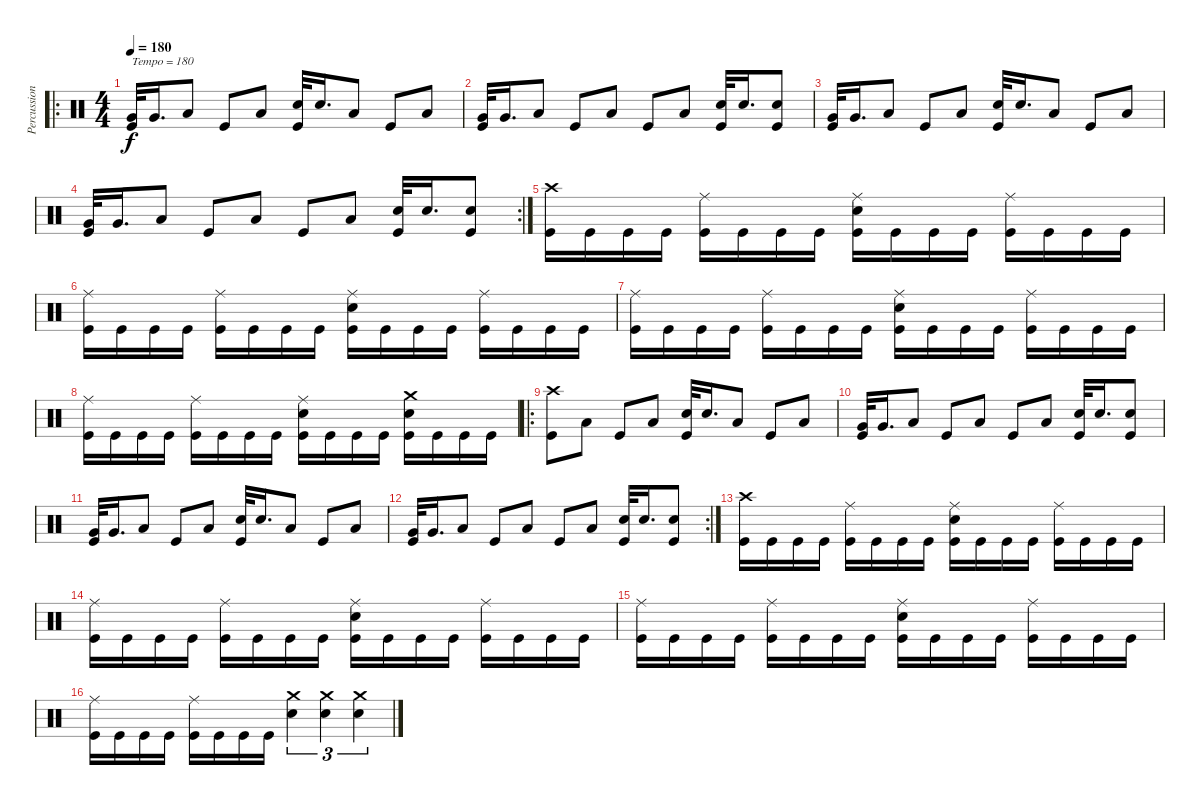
\track ("Percussion" "Percussion") {instrument percussion}
\staff {score}
\articulation defaults
\ro
\ts (4 4)
\tempo 180
\clef neutral
\ks c
("Very Low Tom (hit)" "Kick (hit)").32{txt "Tempo = 180" dy f} "Very Low Tom (hit)".16{d} "Low Tom (hit)".8 "Kick (hit)".8 "Low Tom (hit)".8 ("Electric Snare (hit)" "Kick (hit)").32 "Electric Snare (hit)".16{d} "Low Tom (hit)".8 "Kick (hit)".8 "Low Tom (hit)".8 |
("Very Low Tom (hit)" "Kick (hit)").32 "Very Low Tom (hit)".16{d} "Low Tom (hit)".8 "Kick (hit)".8 "Low Tom (hit)".8 "Kick (hit)".8 "Low Tom (hit)".8 ("Electric Snare (hit)" "Kick (hit)").32 "Electric Snare (hit)".16{d} ("Electric Snare (hit)" "Kick (hit)").8 |
("Very Low Tom (hit)" "Kick (hit)").32 "Very Low Tom (hit)".16{d} "Low Tom (hit)".8 "Kick (hit)".8 "Low Tom (hit)".8 ("Electric Snare (hit)" "Kick (hit)").32 "Electric Snare (hit)".16{d} "Low Tom (hit)".8 "Kick (hit)".8 "Low Tom (hit)".8 |
\rc 2
("Very Low Tom (hit)" "Kick (hit)").32 "Very Low Tom (hit)".16{d} "Low Tom (hit)".8 "Kick (hit)".8 "Low Tom (hit)".8 "Kick (hit)".8 "Low Tom (hit)".8 ("Electric Snare (hit)" "Kick (hit)").32 "Electric Snare (hit)".16{d} ("Electric Snare (hit)" "Kick (hit)").8 |
("Crash high (hit)" "Kick (hit)").16 "Kick (hit)".16 "Kick (hit)".16 "Kick (hit)".16 ("Ride (middle)" "Kick (hit)").16 "Kick (hit)".16 "Kick (hit)".16 "Kick (hit)".16 ("Ride (middle)" "Electric Snare (hit)" "Kick (hit)").16 "Kick (hit)".16 "Kick (hit)".16 "Kick (hit)".16 ("Ride (middle)" "Kick (hit)").16 "Kick (hit)".16 "Kick (hit)".16 "Kick (hit)".16 |
("Ride (middle)" "Kick (hit)").16 "Kick (hit)".16 "Kick (hit)".16 "Kick (hit)".16 ("Ride (middle)" "Kick (hit)").16 "Kick (hit)".16 "Kick (hit)".16 "Kick (hit)".16 ("Ride (middle)" "Electric Snare (hit)" "Kick (hit)").16 "Kick (hit)".16 "Kick (hit)".16 "Kick (hit)".16 ("Ride (middle)" "Kick (hit)").16 "Kick (hit)".16 "Kick (hit)".16 "Kick (hit)".16 |
("Ride (middle)" "Kick (hit)").16 "Kick (hit)".16 "Kick (hit)".16 "Kick (hit)".16 ("Ride (middle)" "Kick (hit)").16 "Kick (hit)".16 "Kick (hit)".16 "Kick (hit)".16 ("Ride (middle)" "Electric Snare (hit)" "Kick (hit)").16 "Kick (hit)".16 "Kick (hit)".16 "Kick (hit)".16 ("Ride (middle)" "Kick (hit)").16 "Kick (hit)".16 "Kick (hit)".16 "Kick (hit)".16 |
("Ride (middle)" "Kick (hit)").16 "Kick (hit)".16 "Kick (hit)".16 "Kick (hit)".16 ("Ride (middle)" "Kick (hit)").16 "Kick (hit)".16 "Kick (hit)".16 "Kick (hit)".16 ("Ride (middle)" "Electric Snare (hit)" "Kick (hit)").16 "Kick (hit)".16 "Kick (hit)".16 "Kick (hit)".16 ("Crash medium (hit)" "Electric Snare (hit)" "Kick (hit)").16 "Kick (hit)".16 "Kick (hit)".16 "Kick (hit)".16 |
\ro
("Crash high (hit)" "Kick (hit)").8 "Low Tom (hit)".8 "Kick (hit)".8 "Low Tom (hit)".8 ("Electric Snare (hit)" "Kick (hit)").32 "Electric Snare (hit)".16{d} "Low Tom (hit)".8 "Kick (hit)".8 "Low Tom (hit)".8 |
("Very Low Tom (hit)" "Kick (hit)").32 "Very Low Tom (hit)".16{d} "Low Tom (hit)".8 "Kick (hit)".8 "Low Tom (hit)".8 "Kick (hit)".8 "Low Tom (hit)".8 ("Electric Snare (hit)" "Kick (hit)").32 "Electric Snare (hit)".16{d} ("Electric Snare (hit)" "Kick (hit)").8 |
("Very Low Tom (hit)" "Kick (hit)").32 "Very Low Tom (hit)".16{d} "Low Tom (hit)".8 "Kick (hit)".8 "Low Tom (hit)".8 ("Electric Snare (hit)" "Kick (hit)").32 "Electric Snare (hit)".16{d} "Low Tom (hit)".8 "Kick (hit)".8 "Low Tom (hit)".8 |
\rc 2
("Very Low Tom (hit)" "Kick (hit)").32 "Very Low Tom (hit)".16{d} "Low Tom (hit)".8 "Kick (hit)".8 "Low Tom (hit)".8 "Kick (hit)".8 "Low Tom (hit)".8 ("Electric Snare (hit)" "Kick (hit)").32 "Electric Snare (hit)".16{d} ("Electric Snare (hit)" "Kick (hit)").8 |
("Crash high (hit)" "Kick (hit)").16 "Kick (hit)".16 "Kick (hit)".16 "Kick (hit)".16 ("Ride (middle)" "Kick (hit)").16 "Kick (hit)".16 "Kick (hit)".16 "Kick (hit)".16 ("Ride (middle)" "Electric Snare (hit)" "Kick (hit)").16 "Kick (hit)".16 "Kick (hit)".16 "Kick (hit)".16 ("Ride (middle)" "Kick (hit)").16 "Kick (hit)".16 "Kick (hit)".16 "Kick (hit)".16 |
("Ride (middle)" "Kick (hit)").16 "Kick (hit)".16 "Kick (hit)".16 "Kick (hit)".16 ("Ride (middle)" "Kick (hit)").16 "Kick (hit)".16 "Kick (hit)".16 "Kick (hit)".16 ("Ride (middle)" "Electric Snare (hit)" "Kick (hit)").16 "Kick (hit)".16 "Kick (hit)".16 "Kick (hit)".16 ("Ride (middle)" "Kick (hit)").16 "Kick (hit)".16 "Kick (hit)".16 "Kick (hit)".16 |
("Ride (middle)" "Kick (hit)").16 "Kick (hit)".16 "Kick (hit)".16 "Kick (hit)".16 ("Ride (middle)" "Kick (hit)").16 "Kick (hit)".16 "Kick (hit)".16 "Kick (hit)".16 ("Ride (middle)" "Electric Snare (hit)" "Kick (hit)").16 "Kick (hit)".16 "Kick (hit)".16 "Kick (hit)".16 ("Ride (middle)" "Kick (hit)").16 "Kick (hit)".16 "Kick (hit)".16 "Kick (hit)".16 |
("Ride (middle)" "Kick (hit)").16 "Kick (hit)".16 "Kick (hit)".16 "Kick (hit)".16 ("Ride (middle)" "Kick (hit)").16 "Kick (hit)".16 "Kick (hit)".16 "Kick (hit)".16 ("Crash medium (hit)" "Electric Snare (hit)").4{tu (3 2)} ("Crash medium (hit)" "Electric Snare (hit)").4{tu (3 2)} ("Crash medium (hit)" "Electric Snare (hit)").4{tu (3 2)}
